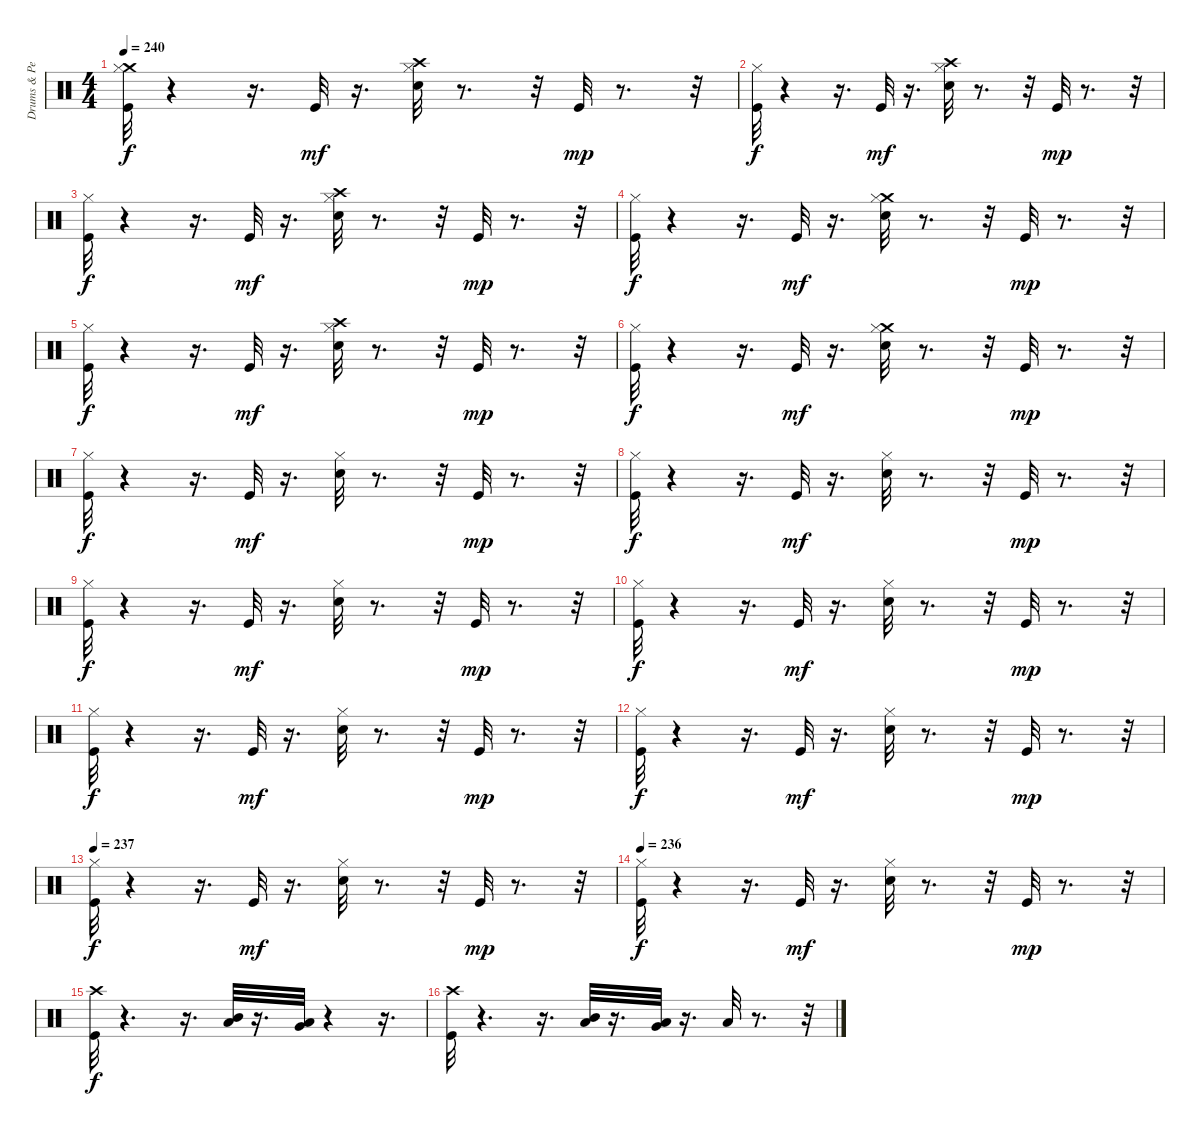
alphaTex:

\track ("Drums & Percussion" "Drums & Pe") {instrument percussion}
\staff {score}
\articulation defaults
\ts (4 4)
\tempo 240
\clef neutral
\ks c
("Crash medium (hit)" "Kick (hit)" "Hi-Hat (closed)").32{dy f} r.4 r.16{d} "Kick (hit)".32{dy mf} r.16{d} ("Crash high (hit)" "Hi-Hat (closed)" "Snare (hit) 2").32 r.8{d} r.32 "Kick (hit)".32{dy mp} r.8{d} r.32 |
("Kick (hit)" "Hi-Hat (closed)").32{dy f} r.4 r.16{d} "Kick (hit)".32{dy mf} r.16{d} ("Crash high (hit)" "Hi-Hat (closed)" "Snare (hit) 2").32 r.8{d} r.32 "Kick (hit)".32{dy mp} r.8{d} r.32 |
("Kick (hit)" "Hi-Hat (closed)").32{dy f} r.4 r.16{d} "Kick (hit)".32{dy mf} r.16{d} ("Crash high (hit)" "Hi-Hat (closed)" "Snare (hit) 2").32 r.8{d} r.32 "Kick (hit)".32{dy mp} r.8{d} r.32 |
("Kick (hit)" "Hi-Hat (closed)").32{dy f} r.4 r.16{d} "Kick (hit)".32{dy mf} r.16{d} ("Crash medium (hit)" "Hi-Hat (closed)" "Snare (hit) 2").32 r.8{d} r.32 "Kick (hit)".32{dy mp} r.8{d} r.32 |
("Kick (hit)" "Hi-Hat (closed)").32{dy f} r.4 r.16{d} "Kick (hit)".32{dy mf} r.16{d} ("Crash high (hit)" "Hi-Hat (closed)" "Snare (hit) 2").32 r.8{d} r.32 "Kick (hit)".32{dy mp} r.8{d} r.32 |
("Kick (hit)" "Hi-Hat (closed)").32{dy f} r.4 r.16{d} "Kick (hit)".32{dy mf} r.16{d} ("Crash medium (hit)" "Hi-Hat (closed)" "Snare (hit) 2").32 r.8{d} r.32 "Kick (hit)".32{dy mp} r.8{d} r.32 |
("Kick (hit)" "Hi-Hat (closed)").32{dy f} r.4 r.16{d} "Kick (hit)".32{dy mf} r.16{d} ("Hi-Hat (closed)" "Snare (hit) 2").32 r.8{d} r.32 "Kick (hit)".32{dy mp} r.8{d} r.32 |
("Kick (hit)" "Hi-Hat (closed)").32{dy f} r.4 r.16{d} "Kick (hit)".32{dy mf} r.16{d} ("Hi-Hat (closed)" "Snare (hit) 2").32 r.8{d} r.32 "Kick (hit)".32{dy mp} r.8{d} r.32 |
("Kick (hit)" "Hi-Hat (closed)").32{dy f} r.4 r.16{d} "Kick (hit)".32{dy mf} r.16{d} ("Hi-Hat (closed)" "Snare (hit) 2").32 r.8{d} r.32 "Kick (hit)".32{dy mp} r.8{d} r.32 |
("Kick (hit)" "Hi-Hat (closed)").32{dy f} r.4 r.16{d} "Kick (hit)".32{dy mf} r.16{d} ("Hi-Hat (closed)" "Snare (hit) 2").32 r.8{d} r.32 "Kick (hit)".32{dy mp} r.8{d} r.32 |
("Kick (hit)" "Hi-Hat (closed)").32{dy f} r.4 r.16{d} "Kick (hit)".32{dy mf} r.16{d} ("Hi-Hat (closed)" "Snare (hit) 2").32 r.8{d} r.32 "Kick (hit)".32{dy mp} r.8{d} r.32 |
("Kick (hit)" "Hi-Hat (closed)").32{dy f} r.4 r.16{d} "Kick (hit)".32{dy mf} r.16{d} ("Hi-Hat (closed)" "Snare (hit) 2").32 r.8{d} r.32 "Kick (hit)".32{dy mp} r.8{d} r.32 |
\tempo 237
("Kick (hit)" "Hi-Hat (closed)").32{dy f} r.4 r.16{d} "Kick (hit)".32{dy mf} r.16{d} ("Hi-Hat (closed)" "Snare (hit) 2").32 r.8{d} r.32 "Kick (hit)".32{dy mp} r.8{d} r.32 |
\tempo 236
("Kick (hit)" "Hi-Hat (closed)").32{dy f} r.4 r.16{d} "Kick (hit)".32{dy mf} r.16{d} ("Hi-Hat (closed)" "Snare (hit) 2").32 r.8{d} r.32 "Kick (hit)".32{dy mp} r.8{d} r.32 |
("Crash high (hit)" "Kick (hit)").32{dy f} r.4{d} r.16{d} ("Low Tom (hit)" "Mid Tom (hit)").32 r.16{d} ("Low Floor Tom (hit)" "Very Low Tom (hit)").32 r.4 r.16{d} |
("Crash high (hit)" "Kick (hit)").32 r.4{d} r.16{d} ("Low Tom (hit)" "Mid Tom (hit)").32 r.16{d} ("Low Floor Tom (hit)" "Very Low Tom (hit)").32 r.16{d} "Low Floor Tom (hit)".32 r.8{d} r.32
